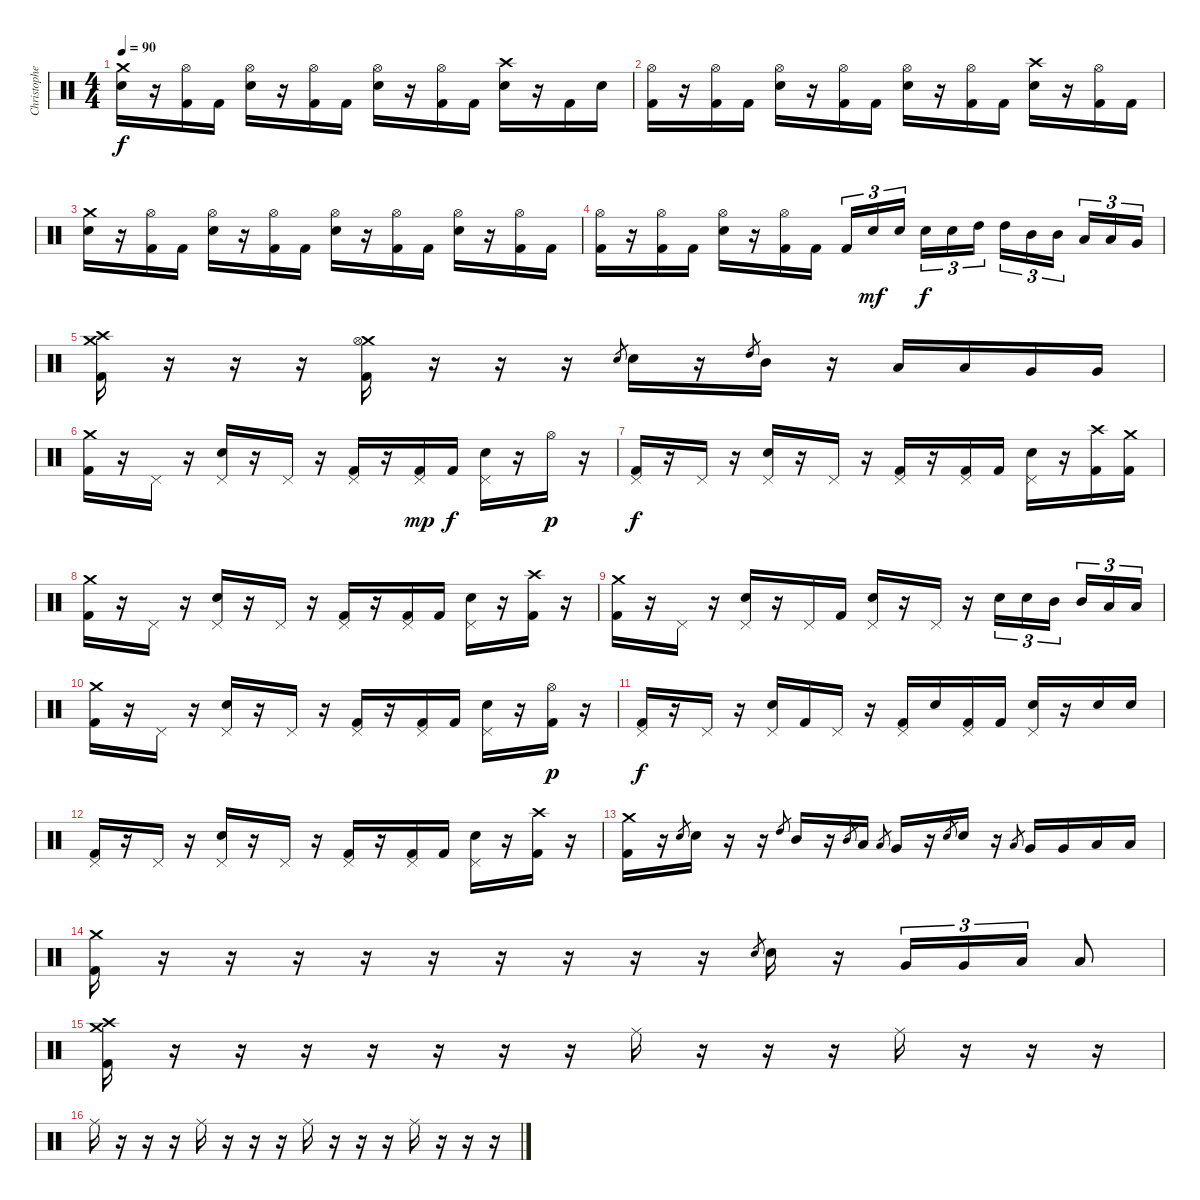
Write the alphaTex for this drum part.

\track ("Christopher Kinder" "Christophe") {instrument percussion}
\staff {score}
\articulation defaults
\ts (4 4)
\tempo 90
\clef neutral
\ks c
("Crash medium (hit)" "Electric Snare (hit)").16{dy f} r.16 ("Hi-Hat (open)" "Kick (hit) 2").16 "Kick (hit) 2".16 ("Hi-Hat (open)" "Electric Snare (hit)").16 r.16 ("Hi-Hat (open)" "Kick (hit) 2").16 "Kick (hit) 2".16 ("Hi-Hat (open)" "Electric Snare (hit)").16 r.16 ("Hi-Hat (open)" "Kick (hit) 2").16 "Kick (hit) 2".16 ("Crash high (hit)" "Electric Snare (hit)").16 r.16 "Kick (hit) 2".16 "Electric Snare (hit)".16 |
("Hi-Hat (open)" "Kick (hit) 2").16 r.16 ("Hi-Hat (open)" "Kick (hit) 2").16 "Kick (hit) 2".16 ("Hi-Hat (open)" "Electric Snare (hit)").16 r.16 ("Hi-Hat (open)" "Kick (hit) 2").16 "Kick (hit) 2".16 ("Hi-Hat (open)" "Electric Snare (hit)").16 r.16 ("Hi-Hat (open)" "Kick (hit) 2").16 "Kick (hit) 2".16 ("Crash high (hit)" "Electric Snare (hit)").16 r.16 ("Hi-Hat (open)" "Kick (hit) 2").16 "Kick (hit) 2".16 |
("Crash medium (hit)" "Electric Snare (hit)").16 r.16 ("Hi-Hat (open)" "Kick (hit) 2").16 "Kick (hit) 2".16 ("Hi-Hat (open)" "Electric Snare (hit)").16 r.16 ("Hi-Hat (open)" "Kick (hit) 2").16 "Kick (hit) 2".16 ("Hi-Hat (open)" "Electric Snare (hit)").16 r.16 ("Hi-Hat (open)" "Kick (hit) 2").16 "Kick (hit) 2".16 ("Hi-Hat (open)" "Electric Snare (hit)").16 r.16 ("Hi-Hat (open)" "Kick (hit) 2").16 "Kick (hit) 2".16 |
("Hi-Hat (open)" "Kick (hit) 2").16 r.16 ("Hi-Hat (open)" "Kick (hit) 2").16 "Kick (hit) 2".16 ("Hi-Hat (open)" "Electric Snare (hit)").16 r.16 ("Hi-Hat (open)" "Kick (hit) 2").16 "Kick (hit) 2".16 "Kick (hit) 2".16{tu (3 2)} "Electric Snare (hit)".16{tu (3 2) dy mf} "Electric Snare (hit)".16{tu (3 2)} "Electric Snare (hit)".16{tu (3 2) dy f} "Electric Snare (hit)".16{tu (3 2)} "High Tom (hit)".16{tu (3 2)} "High Tom (hit)".16{tu (3 2)} "Mid Tom (hit)".16{tu (3 2)} "Mid Tom (hit)".16{tu (3 2)} "Low Tom (hit)".16{tu (3 2)} "Low Tom (hit)".16{tu (3 2)} "Very Low Tom (hit)".16{tu (3 2)} |
("Crash high (hit)" "Crash medium (hit)" "Kick (hit) 2").16 r.16 r.16 r.16 ("Crash medium (hit)" "Hi-Hat (open)" "Kick (hit) 2").16 r.16 r.16 r.16 "Electric Snare (hit)".8{gr} "Electric Snare (hit)".16 r.16 "High Tom (hit)".8{gr} "Mid Tom (hit)".16 r.16 "Low Tom (hit)".16 "Low Tom (hit)".16 "Very Low Tom (hit)".16 "Very Low Tom (hit)".16 |
("Crash medium (hit)" "Kick (hit) 2").16 r.16 "Pedal Hi-Hat (hit)".16 r.16 ("Pedal Hi-Hat (hit)" "Electric Snare (hit)").16 r.16 "Pedal Hi-Hat (hit)".16 r.16 ("Pedal Hi-Hat (hit)" "Kick (hit) 2").16 r.16 ("Pedal Hi-Hat (hit)" "Kick (hit) 2").16{dy mp} "Kick (hit) 2".16{dy f} ("Pedal Hi-Hat (hit)" "Electric Snare (hit)").16 r.16 "Hi-Hat (open)".16{dy p} r.16 |
("Pedal Hi-Hat (hit)" "Kick (hit) 2").16{dy f} r.16 "Pedal Hi-Hat (hit)".16 r.16 ("Pedal Hi-Hat (hit)" "Electric Snare (hit)").16 r.16 "Pedal Hi-Hat (hit)".16 r.16 ("Pedal Hi-Hat (hit)" "Kick (hit) 2").16 r.16 ("Pedal Hi-Hat (hit)" "Kick (hit) 2").16 "Kick (hit) 2".16 ("Pedal Hi-Hat (hit)" "Electric Snare (hit)").16 r.16 ("Crash high (hit)" "Kick (hit) 2").16 ("Crash medium (hit)" "Kick (hit) 2").16 |
("Crash medium (hit)" "Kick (hit) 2").16 r.16 "Pedal Hi-Hat (hit)".16 r.16 ("Pedal Hi-Hat (hit)" "Electric Snare (hit)").16 r.16 "Pedal Hi-Hat (hit)".16 r.16 ("Pedal Hi-Hat (hit)" "Kick (hit) 2").16 r.16 ("Pedal Hi-Hat (hit)" "Kick (hit) 2").16 "Kick (hit) 2".16 ("Pedal Hi-Hat (hit)" "Electric Snare (hit)").16 r.16 ("Crash high (hit)" "Kick (hit) 2").16 r.16 |
("Crash medium (hit)" "Kick (hit) 2").16 r.16 "Pedal Hi-Hat (hit)".16 r.16 ("Pedal Hi-Hat (hit)" "Electric Snare (hit)").16 r.16 "Pedal Hi-Hat (hit)".16 "Kick (hit) 2".16 ("Pedal Hi-Hat (hit)" "Electric Snare (hit)").16 r.16 "Pedal Hi-Hat (hit)".16 r.16 "Electric Snare (hit)".16{tu (3 2)} "Electric Snare (hit)".16{tu (3 2)} "Mid Tom (hit)".16{tu (3 2)} "Mid Tom (hit)".16{tu (3 2)} "Low Tom (hit)".16{tu (3 2)} "Low Tom (hit)".16{tu (3 2)} |
("Crash medium (hit)" "Kick (hit) 2").16 r.16 "Pedal Hi-Hat (hit)".16 r.16 ("Pedal Hi-Hat (hit)" "Electric Snare (hit)").16 r.16 "Pedal Hi-Hat (hit)".16 r.16 ("Pedal Hi-Hat (hit)" "Kick (hit) 2").16 r.16 ("Pedal Hi-Hat (hit)" "Kick (hit) 2").16 "Kick (hit) 2".16 ("Pedal Hi-Hat (hit)" "Electric Snare (hit)").16 r.16 ("Hi-Hat (open)" "Kick (hit) 2").16{dy p} r.16 |
("Pedal Hi-Hat (hit)" "Kick (hit) 2").16{dy f} r.16 "Pedal Hi-Hat (hit)".16 r.16 ("Pedal Hi-Hat (hit)" "Electric Snare (hit)").16 "Kick (hit) 2".16 "Pedal Hi-Hat (hit)".16 r.16 ("Pedal Hi-Hat (hit)" "Kick (hit) 2").16 "Electric Snare (hit)".16 ("Pedal Hi-Hat (hit)" "Kick (hit) 2").16 "Kick (hit) 2".16 ("Pedal Hi-Hat (hit)" "Electric Snare (hit)").16 r.16 "Electric Snare (hit)".16 "Electric Snare (hit)".16 |
("Pedal Hi-Hat (hit)" "Kick (hit) 2").16 r.16 "Pedal Hi-Hat (hit)".16 r.16 ("Pedal Hi-Hat (hit)" "Electric Snare (hit)").16 r.16 "Pedal Hi-Hat (hit)".16 r.16 ("Pedal Hi-Hat (hit)" "Kick (hit) 2").16 r.16 ("Pedal Hi-Hat (hit)" "Kick (hit) 2").16 "Kick (hit) 2".16 ("Pedal Hi-Hat (hit)" "Electric Snare (hit)").16 r.16 ("Crash high (hit)" "Kick (hit) 2").16 r.16 |
("Crash medium (hit)" "Kick (hit) 2").16 r.16 "Electric Snare (hit)".8{gr} "Electric Snare (hit)".16 r.16 r.16 "High Tom (hit)".8{gr} "Mid Tom (hit)".16 r.16 "Mid Tom (hit)".8{gr} "Low Tom (hit)".16 "Low Tom (hit)".8{gr} "Very Low Tom (hit)".16 r.16 "Electric Snare (hit)".8{gr} "Electric Snare (hit)".16 r.16 "Low Tom (hit)".8{gr} "Very Low Tom (hit)".16 "Very Low Tom (hit)".16 "Low Floor Tom (hit)".16 "Low Floor Tom (hit)".16 |
("Crash medium (hit)" "Kick (hit) 2").16 r.16 r.16 r.16 r.16 r.16 r.16 r.16 r.16 r.16 "Electric Snare (hit)".8{gr} "Electric Snare (hit)".16 r.16 "Very Low Tom (hit)".16{tu (3 2)} "Very Low Tom (hit)".16{tu (3 2)} "Low Floor Tom (hit)".16{tu (3 2)} "Low Floor Tom (hit)".8 |
("Crash medium (hit)" "Crash high (hit)" "Kick (hit) 2").16 r.16 r.16 r.16 r.16 r.16 r.16 r.16 "Ride (middle)".16 r.16 r.16 r.16 "Ride (middle)".16 r.16 r.16 r.16 |
"Ride (middle)".16 r.16 r.16 r.16 "Ride (middle)".16 r.16 r.16 r.16 "Ride (middle)".16 r.16 r.16 r.16 "Ride (middle)".16 r.16 r.16 r.16
